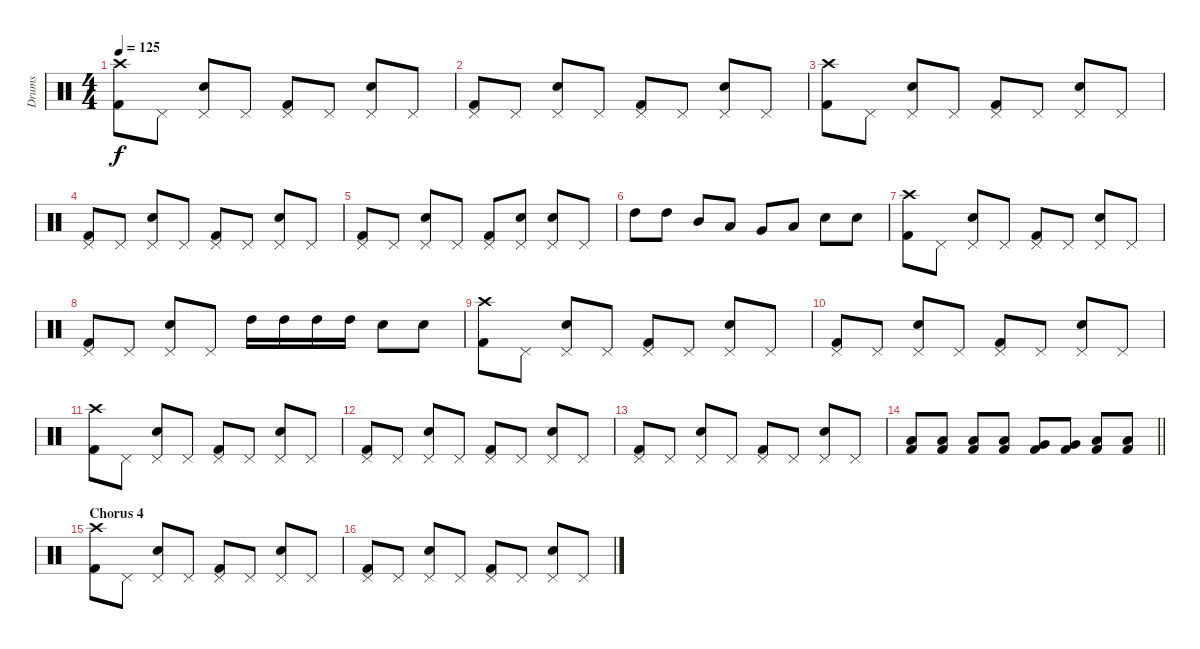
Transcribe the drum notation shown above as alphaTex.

\track ("Drums" "Drums") {instrument percussion}
\staff {score}
\articulation defaults
\ts (4 4)
\tempo 125
\clef neutral
\ks c
("Crash high (hit)" "Kick (hit) 2").8{dy f} "Pedal Hi-Hat (hit)".8 ("Pedal Hi-Hat (hit)" "Snare (hit) 2").8 "Pedal Hi-Hat (hit)".8 ("Pedal Hi-Hat (hit)" "Kick (hit) 2").8 "Pedal Hi-Hat (hit)".8 ("Pedal Hi-Hat (hit)" "Snare (hit) 2").8 "Pedal Hi-Hat (hit)".8 |
("Pedal Hi-Hat (hit)" "Kick (hit) 2").8 "Pedal Hi-Hat (hit)".8 ("Pedal Hi-Hat (hit)" "Snare (hit) 2").8 "Pedal Hi-Hat (hit)".8 ("Pedal Hi-Hat (hit)" "Kick (hit) 2").8 "Pedal Hi-Hat (hit)".8 ("Pedal Hi-Hat (hit)" "Snare (hit) 2").8 "Pedal Hi-Hat (hit)".8 |
("Crash high (hit)" "Kick (hit) 2").8 "Pedal Hi-Hat (hit)".8 ("Pedal Hi-Hat (hit)" "Snare (hit) 2").8 "Pedal Hi-Hat (hit)".8 ("Pedal Hi-Hat (hit)" "Kick (hit) 2").8 "Pedal Hi-Hat (hit)".8 ("Pedal Hi-Hat (hit)" "Snare (hit) 2").8 "Pedal Hi-Hat (hit)".8 |
("Pedal Hi-Hat (hit)" "Kick (hit) 2").8 "Pedal Hi-Hat (hit)".8 ("Pedal Hi-Hat (hit)" "Snare (hit) 2").8 "Pedal Hi-Hat (hit)".8 ("Pedal Hi-Hat (hit)" "Kick (hit) 2").8 "Pedal Hi-Hat (hit)".8 ("Pedal Hi-Hat (hit)" "Snare (hit) 2").8 "Pedal Hi-Hat (hit)".8 |
("Pedal Hi-Hat (hit)" "Kick (hit) 2").8 "Pedal Hi-Hat (hit)".8 ("Pedal Hi-Hat (hit)" "Snare (hit) 2").8 "Pedal Hi-Hat (hit)".8 ("Pedal Hi-Hat (hit)" "Kick (hit) 2").8 ("Pedal Hi-Hat (hit)" "Snare (hit) 2").8 ("Pedal Hi-Hat (hit)" "Snare (hit) 2").8 "Pedal Hi-Hat (hit)".8 |
"High Tom (hit)".8 "High Tom (hit)".8 "Mid Tom (hit)".8 "Low Tom (hit)".8 "Very Low Tom (hit)".8 "Low Floor Tom (hit)".8 "Snare (hit) 2".8 "Snare (hit) 2".8 |
("Crash high (hit)" "Kick (hit) 2").8 "Pedal Hi-Hat (hit)".8 ("Pedal Hi-Hat (hit)" "Snare (hit) 2").8 "Pedal Hi-Hat (hit)".8 ("Pedal Hi-Hat (hit)" "Kick (hit) 2").8 "Pedal Hi-Hat (hit)".8 ("Pedal Hi-Hat (hit)" "Snare (hit) 2").8 "Pedal Hi-Hat (hit)".8 |
("Pedal Hi-Hat (hit)" "Kick (hit) 2").8 "Pedal Hi-Hat (hit)".8 ("Pedal Hi-Hat (hit)" "Snare (hit) 2").8 "Pedal Hi-Hat (hit)".8 "High Tom (hit)".16 "High Tom (hit)".16 "High Tom (hit)".16 "High Tom (hit)".16 "Snare (hit) 2".8 "Snare (hit) 2".8 |
("Crash high (hit)" "Kick (hit) 2").8 "Pedal Hi-Hat (hit)".8 ("Pedal Hi-Hat (hit)" "Snare (hit) 2").8 "Pedal Hi-Hat (hit)".8 ("Pedal Hi-Hat (hit)" "Kick (hit) 2").8 "Pedal Hi-Hat (hit)".8 ("Pedal Hi-Hat (hit)" "Snare (hit) 2").8 "Pedal Hi-Hat (hit)".8 |
("Pedal Hi-Hat (hit)" "Kick (hit) 2").8 "Pedal Hi-Hat (hit)".8 ("Pedal Hi-Hat (hit)" "Snare (hit) 2").8 "Pedal Hi-Hat (hit)".8 ("Pedal Hi-Hat (hit)" "Kick (hit) 2").8 "Pedal Hi-Hat (hit)".8 ("Pedal Hi-Hat (hit)" "Snare (hit) 2").8 "Pedal Hi-Hat (hit)".8 |
("Crash high (hit)" "Kick (hit) 2").8 "Pedal Hi-Hat (hit)".8 ("Pedal Hi-Hat (hit)" "Snare (hit) 2").8 "Pedal Hi-Hat (hit)".8 ("Pedal Hi-Hat (hit)" "Kick (hit) 2").8 "Pedal Hi-Hat (hit)".8 ("Pedal Hi-Hat (hit)" "Snare (hit) 2").8 "Pedal Hi-Hat (hit)".8 |
("Pedal Hi-Hat (hit)" "Kick (hit) 2").8 "Pedal Hi-Hat (hit)".8 ("Pedal Hi-Hat (hit)" "Snare (hit) 2").8 "Pedal Hi-Hat (hit)".8 ("Pedal Hi-Hat (hit)" "Kick (hit) 2").8 "Pedal Hi-Hat (hit)".8 ("Pedal Hi-Hat (hit)" "Snare (hit) 2").8 "Pedal Hi-Hat (hit)".8 |
("Pedal Hi-Hat (hit)" "Kick (hit) 2").8 "Pedal Hi-Hat (hit)".8 ("Pedal Hi-Hat (hit)" "Snare (hit) 2").8 "Pedal Hi-Hat (hit)".8 ("Pedal Hi-Hat (hit)" "Kick (hit) 2").8 "Pedal Hi-Hat (hit)".8 ("Pedal Hi-Hat (hit)" "Snare (hit) 2").8 "Pedal Hi-Hat (hit)".8 |
\barLineRight lightlight
("Low Tom (hit)" "Kick (hit) 2").8 ("Low Tom (hit)" "Kick (hit) 2").8 ("Low Tom (hit)" "Kick (hit) 2").8 ("Low Tom (hit)" "Kick (hit) 2").8 ("Very Low Tom (hit)" "Kick (hit) 2").8 ("Very Low Tom (hit)" "Kick (hit) 2").8 ("Low Floor Tom (hit)" "Kick (hit) 2").8 ("Low Floor Tom (hit)" "Kick (hit) 2").8 |
\section ("" "Chorus 4")
("Crash high (hit)" "Kick (hit) 2").8 "Pedal Hi-Hat (hit)".8 ("Pedal Hi-Hat (hit)" "Snare (hit) 2").8 "Pedal Hi-Hat (hit)".8 ("Pedal Hi-Hat (hit)" "Kick (hit) 2").8 "Pedal Hi-Hat (hit)".8 ("Pedal Hi-Hat (hit)" "Snare (hit) 2").8 "Pedal Hi-Hat (hit)".8 |
("Pedal Hi-Hat (hit)" "Kick (hit) 2").8 "Pedal Hi-Hat (hit)".8 ("Pedal Hi-Hat (hit)" "Snare (hit) 2").8 "Pedal Hi-Hat (hit)".8 ("Pedal Hi-Hat (hit)" "Kick (hit) 2").8 "Pedal Hi-Hat (hit)".8 ("Pedal Hi-Hat (hit)" "Snare (hit) 2").8 "Pedal Hi-Hat (hit)".8
